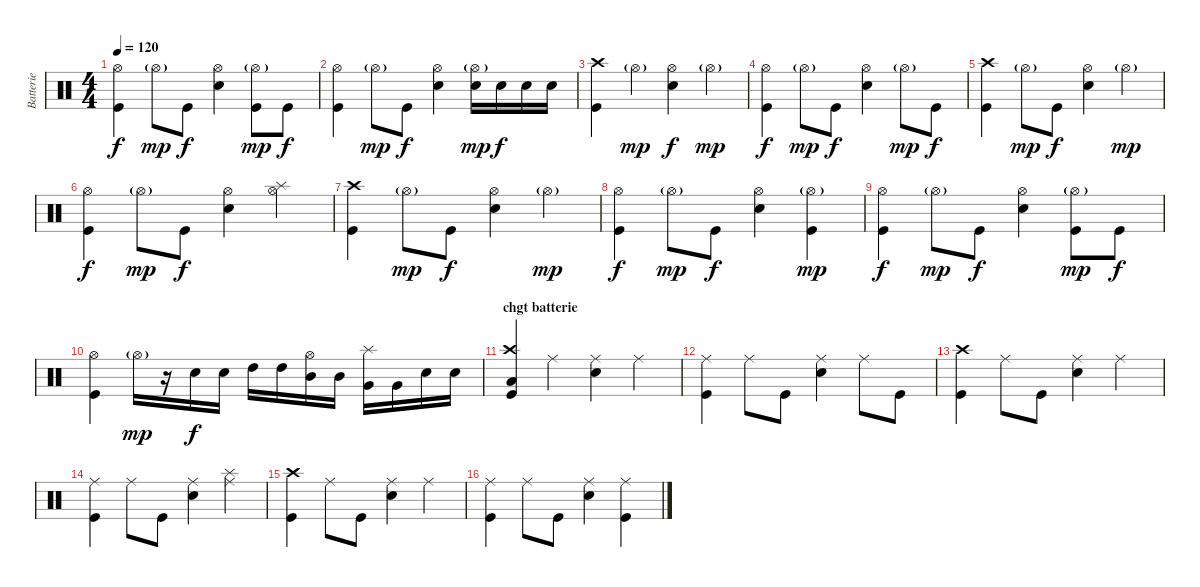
\track ("Batterie" "Batterie") {instrument percussion}
\staff {score}
\articulation defaults
\ts (4 4)
\tempo 120
\clef neutral
\ks c
("Hi-Hat (open)" "Kick (hit)").4{dy f} "Hi-Hat (open)"{g}.8{dy mp} "Kick (hit)".8{dy f} ("Hi-Hat (open)" "Electric Snare (hit)").4 ("Hi-Hat (open)"{g} "Kick (hit)").8{dy mp} "Kick (hit)".8{dy f} |
("Hi-Hat (open)" "Kick (hit)").4 "Hi-Hat (open)"{g}.8{dy mp} "Kick (hit)".8{dy f} ("Hi-Hat (open)" "Electric Snare (hit)").4 ("Hi-Hat (open)"{g} "Electric Snare (hit)").16{dy mp} "Electric Snare (hit)".16{dy f} "Electric Snare (hit)".16 "Electric Snare (hit)".16 |
("Crash high (hit)" "Kick (hit)").4 "Hi-Hat (open)"{g}.4{dy mp} ("Hi-Hat (open)" "Electric Snare (hit)").4{dy f} "Hi-Hat (open)"{g}.4{dy mp} |
("Hi-Hat (open)" "Kick (hit)").4{dy f} "Hi-Hat (open)"{g}.8{dy mp} "Kick (hit)".8{dy f} ("Hi-Hat (open)" "Electric Snare (hit)").4 "Hi-Hat (open)"{g}.8{dy mp} "Kick (hit)".8{dy f} |
("Crash high (hit)" "Kick (hit)").4 "Hi-Hat (open)"{g}.8{dy mp} "Kick (hit)".8{dy f} ("Hi-Hat (open)" "Electric Snare (hit)").4 "Hi-Hat (open)"{g}.4{dy mp} |
("Hi-Hat (open)" "Kick (hit)").4{dy f} "Hi-Hat (open)"{g}.8{dy mp} "Kick (hit)".8{dy f} ("Hi-Hat (open)" "Electric Snare (hit)").4 ("Hi-Hat (open)" "Splash (hit)").4 |
("Crash high (hit)" "Kick (hit)").4 "Hi-Hat (open)"{g}.8{dy mp} "Kick (hit)".8{dy f} ("Hi-Hat (open)" "Electric Snare (hit)").4 "Hi-Hat (open)"{g}.4{dy mp} |
("Hi-Hat (open)" "Kick (hit)").4{dy f} "Hi-Hat (open)"{g}.8{dy mp} "Kick (hit)".8{dy f} ("Hi-Hat (open)" "Electric Snare (hit)").4 ("Hi-Hat (open)"{g} "Kick (hit)").4{dy mp} |
("Hi-Hat (open)" "Kick (hit)").4{dy f} "Hi-Hat (open)"{g}.8{dy mp} "Kick (hit)".8{dy f} ("Hi-Hat (open)" "Electric Snare (hit)").4 ("Hi-Hat (open)"{g} "Kick (hit)").8{dy mp} "Kick (hit)".8{dy f} |
("Hi-Hat (open)" "Kick (hit)").4 "Hi-Hat (open)"{g}.16{dy mp} r.16 "Electric Snare (hit)".16{dy f} "Electric Snare (hit)".16 "High Tom (hit)".16 "High Tom (hit)".16 ("Hi-Hat (open)" "Mid Tom (hit)").16 "Mid Tom (hit)".16 ("Splash (hit)" "Very Low Tom (hit)").16 "Very Low Tom (hit)".16 "Electric Snare (hit)".16 "Electric Snare (hit)".16 |
\section ("" "chgt batterie")
("Crash high (hit)" "Low Floor Tom (hit)" "Kick (hit)").4 "Ride (middle)".4 ("Ride (middle)" "Electric Snare (hit)").4 "Ride (middle)".4 |
("Ride (middle)" "Kick (hit)").4 "Ride (middle)".8 "Kick (hit)".8 ("Ride (middle)" "Electric Snare (hit)").4 "Ride (middle)".8 "Kick (hit)".8 |
("Crash high (hit)" "Kick (hit)").4 "Ride (middle)".8 "Kick (hit)".8 ("Ride (middle)" "Electric Snare (hit)").4 "Ride (middle)".4 |
("Ride (middle)" "Kick (hit)").4 "Ride (middle)".8 "Kick (hit)".8 ("Ride (middle)" "Electric Snare (hit)").4 ("Ride (middle)" "Splash (hit)").4 |
("Crash high (hit)" "Kick (hit)").4 "Ride (middle)".8 "Kick (hit)".8 ("Ride (middle)" "Electric Snare (hit)").4 "Ride (middle)".4 |
("Ride (middle)" "Kick (hit)").4 "Ride (middle)".8 "Kick (hit)".8 ("Ride (middle)" "Electric Snare (hit)").4 ("Ride (middle)" "Kick (hit)").4
